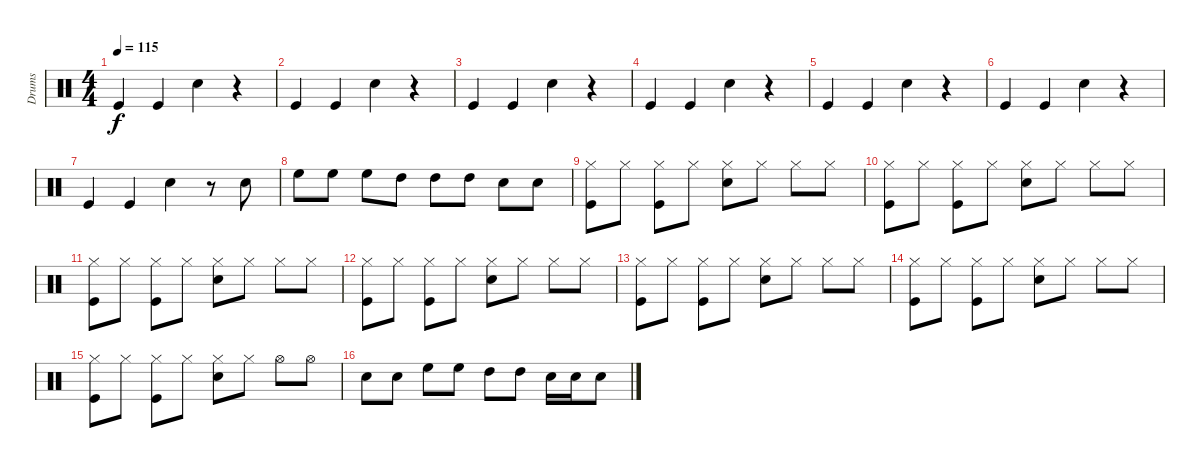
\track ("Drums" "Drums") {instrument percussion}
\staff {score}
\articulation defaults
\ts (4 4)
\tempo 115
\clef neutral
\ks c "Kick (hit)".4{dy f} "Kick (hit)".4 "Snare (hit) 2".4
r.4 |
"Kick (hit)".4 "Kick (hit)".4 "Snare (hit) 2".4 r.4 |
"Kick (hit)".4 "Kick (hit)".4 "Snare (hit) 2".4 r.4 |
"Kick (hit)".4 "Kick (hit)".4 "Snare (hit) 2".4 r.4 |
"Kick (hit)".4 "Kick (hit)".4 "Snare (hit) 2".4 r.4 |
"Kick (hit)".4 "Kick (hit)".4 "Snare (hit) 2".4 r.4 |
"Kick (hit)".4 "Kick (hit)".4 "Snare (hit) 2".4 r.8 "Snare (hit) 2".8 |
"High Floor Tom (hit)".8 "High Floor Tom (hit)".8 "High Floor Tom (hit)".8 "High Tom (hit)".8 "High Tom (hit)".8 "High Tom (hit)".8 "Snare (hit) 2".8 "Snare (hit) 2".8 |
("Hi-Hat (closed)" "Kick (hit)").8 "Hi-Hat (closed)".8 ("Hi-Hat (closed)" "Kick (hit)").8 "Hi-Hat (closed)".8 ("Hi-Hat (closed)" "Snare (hit) 2").8 "Hi-Hat (closed)".8 "Hi-Hat (closed)".8 "Hi-Hat (closed)".8 |
("Hi-Hat (closed)" "Kick (hit)").8 "Hi-Hat (closed)".8 ("Hi-Hat (closed)" "Kick (hit)").8 "Hi-Hat (closed)".8 ("Hi-Hat (closed)" "Snare (hit) 2").8 "Hi-Hat (closed)".8 "Hi-Hat (closed)".8 "Hi-Hat (closed)".8 |
("Hi-Hat (closed)" "Kick (hit)").8 "Hi-Hat (closed)".8 ("Hi-Hat (closed)" "Kick (hit)").8 "Hi-Hat (closed)".8 ("Hi-Hat (closed)" "Snare (hit) 2").8 "Hi-Hat (closed)".8 "Hi-Hat (closed)".8 "Hi-Hat (closed)".8 |
("Hi-Hat (closed)" "Kick (hit)").8 "Hi-Hat (closed)".8 ("Hi-Hat (closed)" "Kick (hit)").8 "Hi-Hat (closed)".8 ("Hi-Hat (closed)" "Snare (hit) 2").8 "Hi-Hat (closed)".8 "Hi-Hat (closed)".8 "Hi-Hat (closed)".8 |
("Hi-Hat (closed)" "Kick (hit)").8 "Hi-Hat (closed)".8 ("Hi-Hat (closed)" "Kick (hit)").8 "Hi-Hat (closed)".8 ("Hi-Hat (closed)" "Snare (hit) 2").8 "Hi-Hat (closed)".8 "Hi-Hat (closed)".8 "Hi-Hat (closed)".8 |
("Hi-Hat (closed)" "Kick (hit)").8 "Hi-Hat (closed)".8 ("Hi-Hat (closed)" "Kick (hit)").8 "Hi-Hat (closed)".8 ("Hi-Hat (closed)" "Snare (hit) 2").8 "Hi-Hat (closed)".8 "Hi-Hat (closed)".8 "Hi-Hat (closed)".8 |
("Hi-Hat (closed)" "Kick (hit)").8 "Hi-Hat (closed)".8 ("Hi-Hat (closed)" "Kick (hit)").8 "Hi-Hat (closed)".8 ("Hi-Hat (closed)" "Snare (hit) 2").8 "Hi-Hat (closed)".8 "Hi-Hat (open)".8 "Hi-Hat (open)".8 |
"Snare (hit) 2".8 "Snare (hit) 2".8 "High Floor Tom (hit)".8 "High Floor Tom (hit)".8 "High Tom (hit)".8 "High Tom (hit)".8 "Snare (hit) 2".16 "Snare (hit) 2".16 "Snare (hit) 2".8
